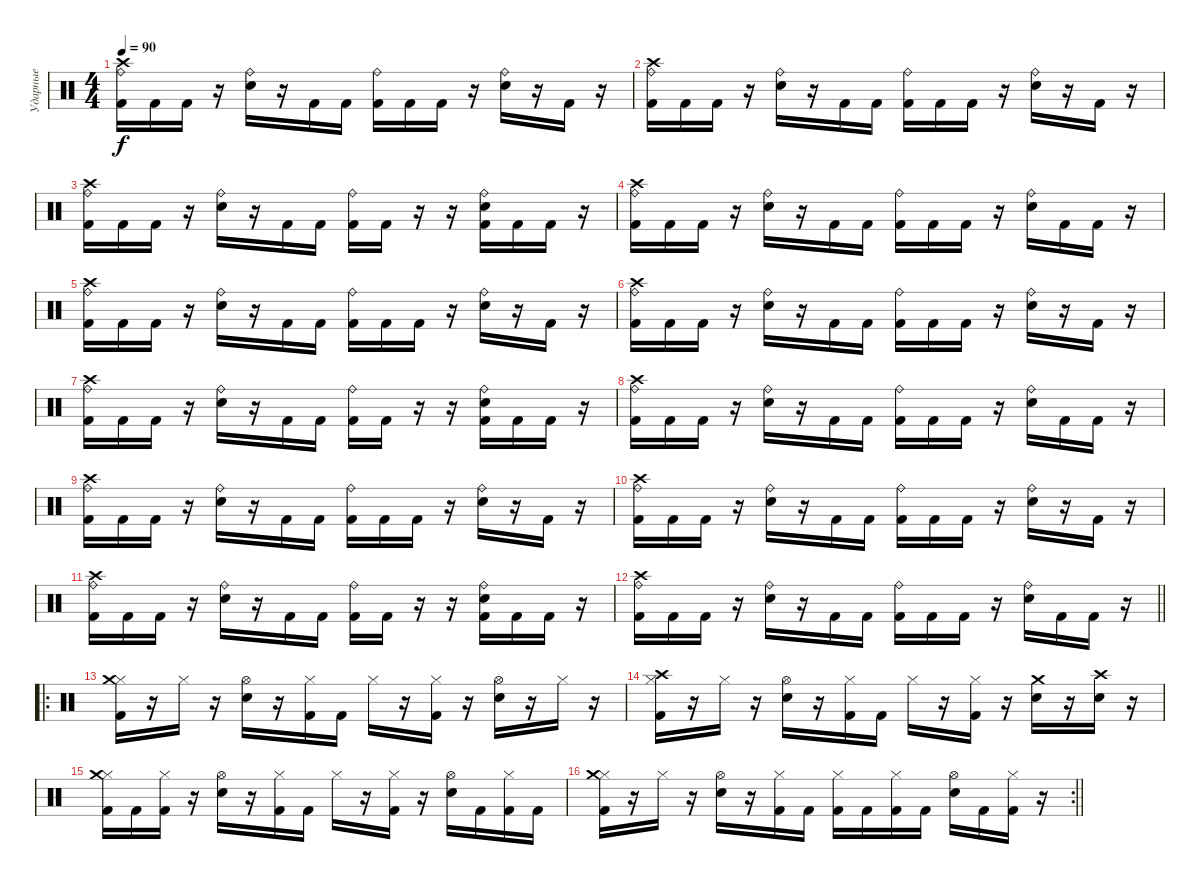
\track ("Ударные" "Ударные") {instrument percussion}
\staff {score}
\articulation defaults
\ts (4 4)
\tempo 90
\clef neutral
\ks c
("Ride (bell)" "Crash high (hit)" "Kick (hit) 2").16{dy f} "Kick (hit) 2".16 "Kick (hit) 2".16 r.16 ("Ride (bell)" "Snare (hit) 2").16 r.16 "Kick (hit) 2".16 "Kick (hit) 2".16 ("Ride (bell)" "Kick (hit) 2").16 "Kick (hit) 2".16 "Kick (hit) 2".16 r.16 ("Ride (bell)" "Snare (hit) 2").16 r.16 "Kick (hit) 2".16 r.16 |
("Ride (bell)" "Crash high (hit)" "Kick (hit) 2").16 "Kick (hit) 2".16 "Kick (hit) 2".16 r.16 ("Ride (bell)" "Snare (hit) 2").16 r.16 "Kick (hit) 2".16 "Kick (hit) 2".16 ("Ride (bell)" "Kick (hit) 2").16 "Kick (hit) 2".16 "Kick (hit) 2".16 r.16 ("Ride (bell)" "Snare (hit) 2").16 r.16 "Kick (hit) 2".16 r.16 |
("Ride (bell)" "Crash high (hit)" "Kick (hit) 2").16 "Kick (hit) 2".16 "Kick (hit) 2".16 r.16 ("Ride (bell)" "Snare (hit) 2").16 r.16 "Kick (hit) 2".16 "Kick (hit) 2".16 ("Ride (bell)" "Kick (hit) 2").16 "Kick (hit) 2".16 r.16 r.16 ("Ride (bell)" "Snare (hit) 2" "Kick (hit) 2").16 "Kick (hit) 2".16 "Kick (hit) 2".16 r.16 |
("Ride (bell)" "Crash high (hit)" "Kick (hit) 2").16 "Kick (hit) 2".16 "Kick (hit) 2".16 r.16 ("Ride (bell)" "Snare (hit) 2").16 r.16 "Kick (hit) 2".16 "Kick (hit) 2".16 ("Ride (bell)" "Kick (hit) 2").16 "Kick (hit) 2".16 "Kick (hit) 2".16 r.16 ("Ride (bell)" "Snare (hit) 2").16 "Kick (hit) 2".16 "Kick (hit) 2".16 r.16 |
("Ride (bell)" "Crash high (hit)" "Kick (hit) 2").16 "Kick (hit) 2".16 "Kick (hit) 2".16 r.16 ("Ride (bell)" "Snare (hit) 2").16 r.16 "Kick (hit) 2".16 "Kick (hit) 2".16 ("Ride (bell)" "Kick (hit) 2").16 "Kick (hit) 2".16 "Kick (hit) 2".16 r.16 ("Ride (bell)" "Snare (hit) 2").16 r.16 "Kick (hit) 2".16 r.16 |
("Ride (bell)" "Crash high (hit)" "Kick (hit) 2").16 "Kick (hit) 2".16 "Kick (hit) 2".16 r.16 ("Ride (bell)" "Snare (hit) 2").16 r.16 "Kick (hit) 2".16 "Kick (hit) 2".16 ("Ride (bell)" "Kick (hit) 2").16 "Kick (hit) 2".16 "Kick (hit) 2".16 r.16 ("Ride (bell)" "Snare (hit) 2").16 r.16 "Kick (hit) 2".16 r.16 |
("Ride (bell)" "Crash high (hit)" "Kick (hit) 2").16 "Kick (hit) 2".16 "Kick (hit) 2".16 r.16 ("Ride (bell)" "Snare (hit) 2").16 r.16 "Kick (hit) 2".16 "Kick (hit) 2".16 ("Ride (bell)" "Kick (hit) 2").16 "Kick (hit) 2".16 r.16 r.16 ("Ride (bell)" "Snare (hit) 2" "Kick (hit) 2").16 "Kick (hit) 2".16 "Kick (hit) 2".16 r.16 |
("Ride (bell)" "Crash high (hit)" "Kick (hit) 2").16 "Kick (hit) 2".16 "Kick (hit) 2".16 r.16 ("Ride (bell)" "Snare (hit) 2").16 r.16 "Kick (hit) 2".16 "Kick (hit) 2".16 ("Ride (bell)" "Kick (hit) 2").16 "Kick (hit) 2".16 "Kick (hit) 2".16 r.16 ("Ride (bell)" "Snare (hit) 2").16 "Kick (hit) 2".16 "Kick (hit) 2".16 r.16 |
("Ride (bell)" "Crash high (hit)" "Kick (hit) 2").16 "Kick (hit) 2".16 "Kick (hit) 2".16 r.16 ("Ride (bell)" "Snare (hit) 2").16 r.16 "Kick (hit) 2".16 "Kick (hit) 2".16 ("Ride (bell)" "Kick (hit) 2").16 "Kick (hit) 2".16 "Kick (hit) 2".16 r.16 ("Ride (bell)" "Snare (hit) 2").16 r.16 "Kick (hit) 2".16 r.16 |
("Ride (bell)" "Crash high (hit)" "Kick (hit) 2").16 "Kick (hit) 2".16 "Kick (hit) 2".16 r.16 ("Ride (bell)" "Snare (hit) 2").16 r.16 "Kick (hit) 2".16 "Kick (hit) 2".16 ("Ride (bell)" "Kick (hit) 2").16 "Kick (hit) 2".16 "Kick (hit) 2".16 r.16 ("Ride (bell)" "Snare (hit) 2").16 r.16 "Kick (hit) 2".16 r.16 |
("Ride (bell)" "Crash high (hit)" "Kick (hit) 2").16 "Kick (hit) 2".16 "Kick (hit) 2".16 r.16 ("Ride (bell)" "Snare (hit) 2").16 r.16 "Kick (hit) 2".16 "Kick (hit) 2".16 ("Ride (bell)" "Kick (hit) 2").16 "Kick (hit) 2".16 r.16 r.16 ("Ride (bell)" "Snare (hit) 2" "Kick (hit) 2").16 "Kick (hit) 2".16 "Kick (hit) 2".16 r.16 |
\barLineRight lightlight
("Ride (bell)" "Crash high (hit)" "Kick (hit) 2").16 "Kick (hit) 2".16 "Kick (hit) 2".16 r.16 ("Ride (bell)" "Snare (hit) 2").16 r.16 "Kick (hit) 2".16 "Kick (hit) 2".16 ("Ride (bell)" "Kick (hit) 2").16 "Kick (hit) 2".16 "Kick (hit) 2".16 r.16 ("Ride (bell)" "Snare (hit) 2").16 "Kick (hit) 2".16 "Kick (hit) 2".16 r.16 |
\ro
("Hi-Hat (closed)" "Crash medium (hit)" "Kick (hit) 2").16 r.16 "Hi-Hat (closed)".16 r.16 ("Hi-Hat (open)" "Snare (hit) 2").16 r.16 ("Hi-Hat (closed)" "Kick (hit) 2").16 "Kick (hit) 2".16 "Hi-Hat (closed)".16 r.16 ("Hi-Hat (closed)" "Kick (hit) 2").16 r.16 ("Hi-Hat (open)" "Snare (hit) 2").16 r.16 "Hi-Hat (closed)".16 r.16 |
("Hi-Hat (closed)" "Crash high (hit)" "Kick (hit) 2").16 r.16 "Hi-Hat (closed)".16 r.16 ("Hi-Hat (open)" "Snare (hit) 2").16 r.16 ("Hi-Hat (closed)" "Kick (hit) 2").16 "Kick (hit) 2".16 "Hi-Hat (closed)".16 r.16 ("Hi-Hat (closed)" "Kick (hit) 2").16 r.16 ("Snare (hit) 2" "Crash medium (hit)").16 r.16 ("Snare (hit) 2" "Crash high (hit)").16 r.16 |
("Hi-Hat (closed)" "Crash medium (hit)" "Kick (hit) 2").16 "Kick (hit) 2".16 ("Hi-Hat (closed)" "Kick (hit) 2").16 r.16 ("Hi-Hat (open)" "Snare (hit) 2").16 r.16 ("Hi-Hat (closed)" "Kick (hit) 2").16 "Kick (hit) 2".16 "Hi-Hat (closed)".16 r.16 ("Hi-Hat (closed)" "Kick (hit) 2").16 r.16 ("Hi-Hat (open)" "Snare (hit) 2").16 "Kick (hit) 2".16 ("Hi-Hat (closed)" "Kick (hit) 2").16 "Kick (hit) 2".16 |
\rc 2
\barLineRight lightlight
("Hi-Hat (closed)" "Crash medium (hit)" "Kick (hit) 2").16 r.16 "Hi-Hat (closed)".16 r.16 ("Hi-Hat (open)" "Snare (hit) 2").16 r.16 ("Hi-Hat (closed)" "Kick (hit) 2").16 "Kick (hit) 2".16 ("Hi-Hat (closed)" "Kick (hit) 2").16 "Kick (hit) 2".16 ("Hi-Hat (closed)" "Kick (hit) 2").16 "Kick (hit) 2".16 ("Hi-Hat (open)" "Snare (hit) 2").16 "Kick (hit) 2".16 ("Hi-Hat (closed)" "Kick (hit) 2").16 r.16
